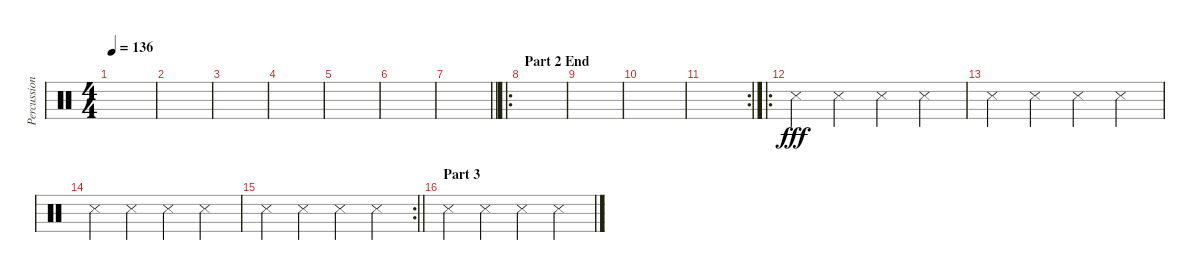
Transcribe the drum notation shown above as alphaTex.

\track ("Percussion / FX" "Percussion") {instrument percussion}
\staff {score}
\articulation defaults
\ts (4 4)
\tempo 136
\clef neutral
\ks c
|
|
|
|
|
|
\barLineRight lightlight
|
\ro
\section ("" "Part 2 End")
|
|
|
\rc 2
|
\ro "Metronome (hit)".4{dy fff} "Snare (side stick) 3".4 "Metronome (hit)".4 "Snare (side stick) 3".4
|
"Metronome (hit)".4 "Snare (side stick) 3".4 "Metronome (hit)".4 "Snare (side stick) 3".4 |
"Metronome (hit)".4 "Snare (side stick) 3".4 "Metronome (hit)".4 "Snare (side stick) 3".4 |
\rc 2
\barLineRight lightlight "Metronome (hit)".4 "Snare (side stick) 3".4 "Metronome (hit)".4 "Snare (side stick) 3".4
|
\section ("" "Part 3")
"Metronome (hit)".4{volume 2} "Snare (side stick) 3".4 "Metronome (hit)".4 "Snare (side stick) 3".4
